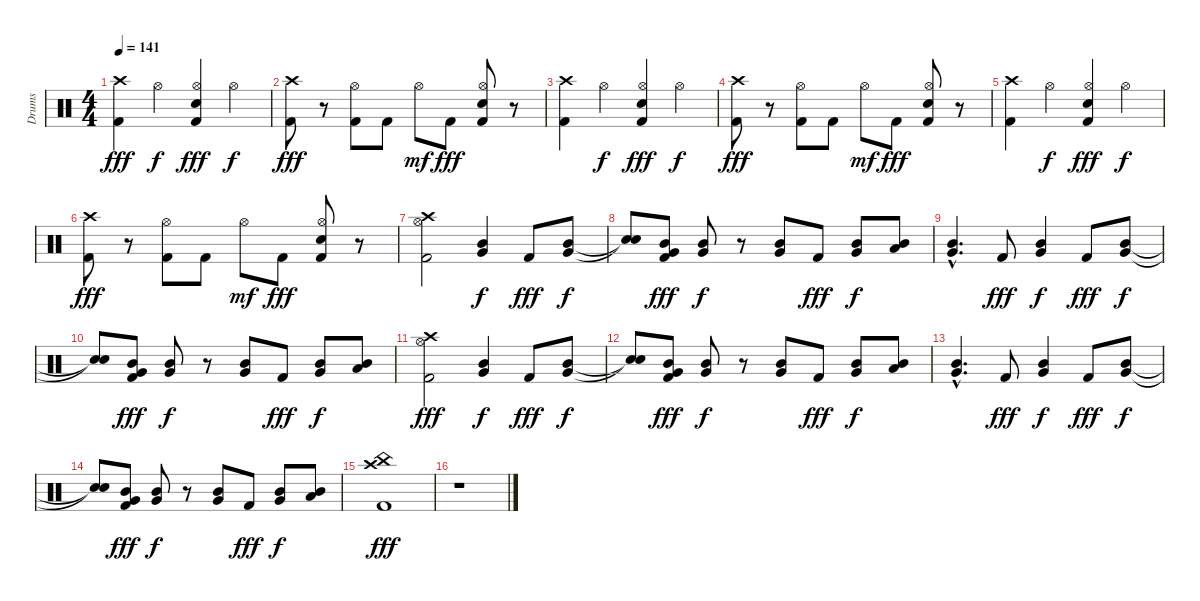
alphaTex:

\track ("Drums" "Drums") {instrument percussion}
\staff {score}
\articulation defaults
\ts (4 4)
\tempo 141
\clef neutral
\ks c
("Crash high (hit)" "Kick (hit) 2").4{dy fff} "Hi-Hat (open)".4{dy f} ("Hi-Hat (open)" "Electric Snare (hit)" "Kick (hit) 2").4{dy fff} "Hi-Hat (open)".4{dy f} |
("Crash high (hit)" "Kick (hit) 2").8{dy fff} r.8 ("Hi-Hat (open)" "Kick (hit) 2").8 "Kick (hit) 2".8 "Hi-Hat (open)".8{dy mf} "Kick (hit) 2".8{dy fff} ("Hi-Hat (open)" "Electric Snare (hit)" "Kick (hit) 2").8 r.8 |
("Crash high (hit)" "Kick (hit) 2").4 "Hi-Hat (open)".4{dy f} ("Hi-Hat (open)" "Electric Snare (hit)" "Kick (hit) 2").4{dy fff} "Hi-Hat (open)".4{dy f} |
("Crash high (hit)" "Kick (hit) 2").8{dy fff} r.8 ("Hi-Hat (open)" "Kick (hit) 2").8 "Kick (hit) 2".8 "Hi-Hat (open)".8{dy mf} "Kick (hit) 2".8{dy fff} ("Hi-Hat (open)" "Electric Snare (hit)" "Kick (hit) 2").8 r.8 |
("Crash high (hit)" "Kick (hit) 2").4 "Hi-Hat (open)".4{dy f} ("Hi-Hat (open)" "Electric Snare (hit)" "Kick (hit) 2").4{dy fff} "Hi-Hat (open)".4{dy f} |
("Crash high (hit)" "Kick (hit) 2").8{dy fff} r.8 ("Hi-Hat (open)" "Kick (hit) 2").8 "Kick (hit) 2".8 "Hi-Hat (open)".8{dy mf} "Kick (hit) 2".8{dy fff} ("Hi-Hat (open)" "Electric Snare (hit)" "Kick (hit) 2").8 r.8 |
("Hi-Hat (open)" "Crash high (hit)" "Kick (hit) 2").2 ("Very Low Tom (hit)" "Mid Tom (hit)").4{dy f} "Kick (hit) 2".8{dy fff} ("Very Low Tom (hit)" "Mid Tom (hit)").8{dy f} |
("Snare (hit)"{t} "Snare (hit)"{t}).8 ("Very Low Tom (hit)" "Mid Tom (hit)" "Kick (hit) 2").8{dy fff} ("Very Low Tom (hit)" "Mid Tom (hit)").8{dy f} r.8 ("Very Low Tom (hit)" "Mid Tom (hit)").8 "Kick (hit) 2".8{dy fff} ("Very Low Tom (hit)" "Mid Tom (hit)").8{dy f} ("Low Tom (hit)" "Mid Tom (hit)").8 |
("Very Low Tom (hit)"{hac} "Mid Tom (hit)"{hac}).4{d} "Kick (hit) 2".8{dy fff} ("Very Low Tom (hit)" "Mid Tom (hit)").4{dy f} "Kick (hit) 2".8{dy fff} ("Very Low Tom (hit)" "Mid Tom (hit)").8{dy f} |
("Snare (hit)"{t} "Snare (hit)"{t}).8 ("Very Low Tom (hit)" "Mid Tom (hit)" "Kick (hit) 2").8{dy fff} ("Very Low Tom (hit)" "Mid Tom (hit)").8{dy f} r.8 ("Very Low Tom (hit)" "Mid Tom (hit)").8 "Kick (hit) 2".8{dy fff} ("Very Low Tom (hit)" "Mid Tom (hit)").8{dy f} ("Low Tom (hit)" "Mid Tom (hit)").8 |
("Hi-Hat (open)" "Crash high (hit)" "Kick (hit) 2").2{dy fff} ("Very Low Tom (hit)" "Mid Tom (hit)").4{dy f} "Kick (hit) 2".8{dy fff} ("Very Low Tom (hit)" "Mid Tom (hit)").8{dy f} |
("Snare (hit)"{t} "Snare (hit)"{t}).8 ("Very Low Tom (hit)" "Mid Tom (hit)" "Kick (hit) 2").8{dy fff} ("Very Low Tom (hit)" "Mid Tom (hit)").8{dy f} r.8 ("Very Low Tom (hit)" "Mid Tom (hit)").8 "Kick (hit) 2".8{dy fff} ("Very Low Tom (hit)" "Mid Tom (hit)").8{dy f} ("Low Tom (hit)" "Mid Tom (hit)").8 |
("Very Low Tom (hit)"{hac} "Mid Tom (hit)"{hac}).4{d} "Kick (hit) 2".8{dy fff} ("Very Low Tom (hit)" "Mid Tom (hit)").4{dy f} "Kick (hit) 2".8{dy fff} ("Very Low Tom (hit)" "Mid Tom (hit)").8{dy f} |
("Snare (hit)"{t} "Snare (hit)"{t}).8 ("Very Low Tom (hit)" "Mid Tom (hit)" "Kick (hit) 2").8{dy fff} ("Very Low Tom (hit)" "Mid Tom (hit)").8{dy f} r.8 ("Very Low Tom (hit)" "Mid Tom (hit)").8 "Kick (hit) 2".8{dy fff} ("Very Low Tom (hit)" "Mid Tom (hit)").8{dy f} ("Low Tom (hit)" "Mid Tom (hit)").8 |
("Crash high (hit)" "China (hit)" "Kick (hit) 2").1{dy fff} |
r.1
